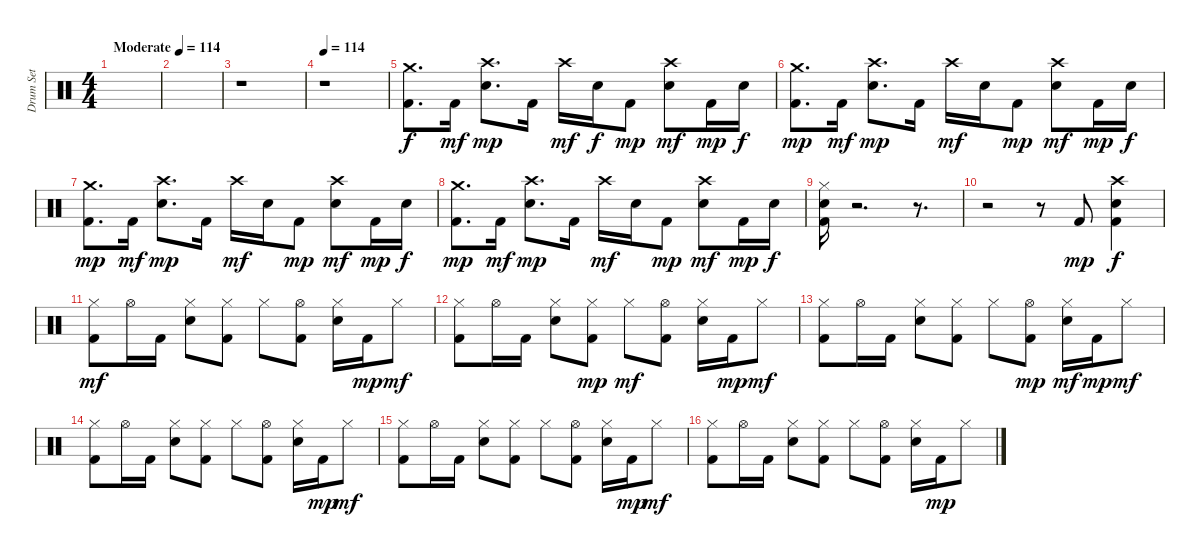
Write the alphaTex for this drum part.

\track ("Drum Set" "Drum Set") {instrument percussion}
\staff {score}
\articulation defaults
\ts (4 4)
\tempo (114 "Moderate")
\clef neutral
\ks c
|
|
r.1 |
\tempo 114
r.1 |
("Kick (hit) 2" "Crash medium (hit)").8{d} "Kick (hit) 2".16{dy mf} ("Snare (hit) 2" "Crash high (hit)").8{d dy mp} "Kick (hit) 2".16 "Crash high (hit)".16{dy mf} "Snare (hit) 2".16{dy f} "Kick (hit) 2".8{dy mp} ("Snare (hit) 2" "Crash high (hit)").8{dy mf} "Kick (hit) 2".16{dy mp} "Snare (hit) 2".16{dy f} |
("Kick (hit) 2" "Crash medium (hit)").8{d dy mp} "Kick (hit) 2".16{dy mf} ("Snare (hit) 2" "Crash high (hit)").8{d dy mp} "Kick (hit) 2".16 "Crash high (hit)".16{dy mf} "Snare (hit) 2".16 "Kick (hit) 2".8{dy mp} ("Snare (hit) 2" "Crash high (hit)").8{dy mf} "Kick (hit) 2".16{dy mp} "Snare (hit) 2".16{dy f} |
("Kick (hit) 2" "Crash medium (hit)").8{d dy mp} "Kick (hit) 2".16{dy mf} ("Snare (hit) 2" "Crash high (hit)").8{d dy mp} "Kick (hit) 2".16 "Crash high (hit)".16{dy mf} "Snare (hit) 2".16 "Kick (hit) 2".8{dy mp} ("Snare (hit) 2" "Crash high (hit)").8{dy mf} "Kick (hit) 2".16{dy mp} "Snare (hit) 2".16{dy f} |
("Kick (hit) 2" "Crash medium (hit)").8{d dy mp} "Kick (hit) 2".16{dy mf} ("Snare (hit) 2" "Crash high (hit)").8{d dy mp} "Kick (hit) 2".16 "Crash high (hit)".16{dy mf} "Snare (hit) 2".16 "Kick (hit) 2".8{dy mp} ("Snare (hit) 2" "Crash high (hit)").8{dy mf} "Kick (hit) 2".16{dy mp} "Snare (hit) 2".16{dy f} |
("Kick (hit) 2" "Snare (hit) 2" "Hi-Hat (closed)").16 r.2{d} r.8{d} |
r.2 r.8 "Kick (hit) 2".8{dy mp} ("Kick (hit) 2" "Snare (hit) 2" "Crash high (hit)").4{dy f} |
("Kick (hit) 2" "Hi-Hat (closed)").8{dy mf} "Hi-Hat (open)".16 "Kick (hit) 2".16 ("Snare (hit) 2" "Hi-Hat (closed)").8 ("Kick (hit) 2" "Hi-Hat (closed)").8 "Hi-Hat (closed)".8 ("Kick (hit) 2" "Hi-Hat (open)").8 ("Snare (hit) 2" "Hi-Hat (closed)").16 "Kick (hit) 2".16{dy mp} "Hi-Hat (closed)".8{dy mf} |
("Kick (hit) 2" "Hi-Hat (closed)").8 "Hi-Hat (open)".16 "Kick (hit) 2".16 ("Snare (hit) 2" "Hi-Hat (closed)").8 ("Kick (hit) 2" "Hi-Hat (closed)").8{dy mp} "Hi-Hat (closed)".8{dy mf} ("Kick (hit) 2" "Hi-Hat (open)").8 ("Snare (hit) 2" "Hi-Hat (closed)").16 "Kick (hit) 2".16{dy mp} "Hi-Hat (closed)".8{dy mf} |
("Kick (hit) 2" "Hi-Hat (closed)").8 "Hi-Hat (open)".16 "Kick (hit) 2".16 ("Snare (hit) 2" "Hi-Hat (closed)").8 ("Kick (hit) 2" "Hi-Hat (closed)").8 "Hi-Hat (closed)".8 ("Kick (hit) 2" "Hi-Hat (open)").8{dy mp} ("Snare (hit) 2" "Hi-Hat (closed)").16{dy mf} "Kick (hit) 2".16{dy mp} "Hi-Hat (closed)".8{dy mf} |
("Kick (hit) 2" "Hi-Hat (closed)").8 "Hi-Hat (open)".16 "Kick (hit) 2".16 ("Snare (hit) 2" "Hi-Hat (closed)").8 ("Kick (hit) 2" "Hi-Hat (closed)").8 "Hi-Hat (closed)".8 ("Kick (hit) 2" "Hi-Hat (open)").8 ("Snare (hit) 2" "Hi-Hat (closed)").16 "Kick (hit) 2".16{dy mp} "Hi-Hat (closed)".8{dy mf} |
("Kick (hit) 2" "Hi-Hat (closed)").8 "Hi-Hat (open)".16 "Kick (hit) 2".16 ("Snare (hit) 2" "Hi-Hat (closed)").8 ("Kick (hit) 2" "Hi-Hat (closed)").8 "Hi-Hat (closed)".8 ("Kick (hit) 2" "Hi-Hat (open)").8 ("Snare (hit) 2" "Hi-Hat (closed)").16 "Kick (hit) 2".16{dy mp} "Hi-Hat (closed)".8{dy mf} |
("Kick (hit) 2" "Hi-Hat (closed)").8 "Hi-Hat (open)".16 "Kick (hit) 2".16 ("Snare (hit) 2" "Hi-Hat (closed)").8 ("Kick (hit) 2" "Hi-Hat (closed)").8 "Hi-Hat (closed)".8 ("Kick (hit) 2" "Hi-Hat (open)").8 ("Snare (hit) 2" "Hi-Hat (closed)").16 "Kick (hit) 2".16{dy mp} "Hi-Hat (closed)".8
